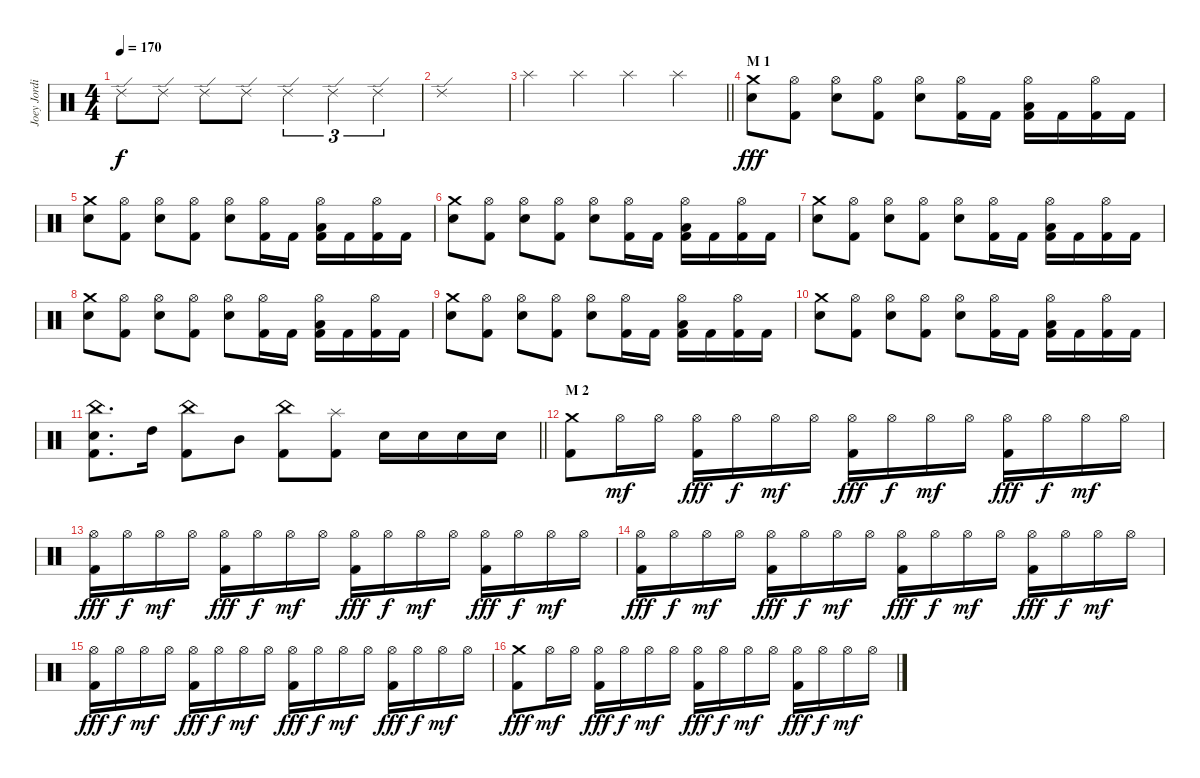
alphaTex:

\track ("Joey Jordison" "Joey Jordi") {instrument percussion}
\staff {score}
\articulation defaults
\ts (4 4)
\tempo 170
\clef neutral
\ks c "Ride (edge) 2".8{dy f} "Ride (edge) 2".8 "Ride (edge) 2".8 "Ride (edge) 2".8 "Ride (edge) 2".4{tu (3 2)} "Ride (edge) 2".4{tu (3 2)} "Ride (edge) 2".4{tu (3 2)}
|
"Ride (edge) 2".1 |
\barLineRight lightlight "Splash (hit)".4 "Splash (hit)".4 "Splash (hit)".4 "Splash (hit)".4
|
\section ("" "M 1")
("Crash medium (hit)" "Electric Snare (hit)").8{dy fff} ("Hi-Hat (open)" "Kick (hit) 2").8 ("Hi-Hat (open)" "Electric Snare (hit)").8 ("Hi-Hat (open)" "Kick (hit) 2").8 ("Hi-Hat (open)" "Electric Snare (hit)").8 ("Hi-Hat (open)" "Kick (hit) 2").16 "Kick (hit) 2".16 ("Hi-Hat (open)" "Low Floor Tom (hit)" "Kick (hit) 2").16 "Kick (hit) 2".16 ("Hi-Hat (open)" "Kick (hit) 2").16 "Kick (hit) 2".16 |
("Crash medium (hit)" "Electric Snare (hit)").8 ("Hi-Hat (open)" "Kick (hit) 2").8 ("Hi-Hat (open)" "Electric Snare (hit)").8 ("Hi-Hat (open)" "Kick (hit) 2").8 ("Hi-Hat (open)" "Electric Snare (hit)").8 ("Hi-Hat (open)" "Kick (hit) 2").16 "Kick (hit) 2".16 ("Hi-Hat (open)" "Low Floor Tom (hit)" "Kick (hit) 2").16 "Kick (hit) 2".16 ("Hi-Hat (open)" "Kick (hit) 2").16 "Kick (hit) 2".16 |
("Crash medium (hit)" "Electric Snare (hit)").8 ("Hi-Hat (open)" "Kick (hit) 2").8 ("Hi-Hat (open)" "Electric Snare (hit)").8 ("Hi-Hat (open)" "Kick (hit) 2").8 ("Hi-Hat (open)" "Electric Snare (hit)").8 ("Hi-Hat (open)" "Kick (hit) 2").16 "Kick (hit) 2".16 ("Hi-Hat (open)" "Low Floor Tom (hit)" "Kick (hit) 2").16 "Kick (hit) 2".16 ("Hi-Hat (open)" "Kick (hit) 2").16 "Kick (hit) 2".16 |
("Crash medium (hit)" "Electric Snare (hit)").8 ("Hi-Hat (open)" "Kick (hit) 2").8 ("Hi-Hat (open)" "Electric Snare (hit)").8 ("Hi-Hat (open)" "Kick (hit) 2").8 ("Hi-Hat (open)" "Electric Snare (hit)").8 ("Hi-Hat (open)" "Kick (hit) 2").16 "Kick (hit) 2".16 ("Hi-Hat (open)" "Low Floor Tom (hit)" "Kick (hit) 2").16 "Kick (hit) 2".16 ("Hi-Hat (open)" "Kick (hit) 2").16 "Kick (hit) 2".16 |
("Crash medium (hit)" "Electric Snare (hit)").8 ("Hi-Hat (open)" "Kick (hit) 2").8 ("Hi-Hat (open)" "Electric Snare (hit)").8 ("Hi-Hat (open)" "Kick (hit) 2").8 ("Hi-Hat (open)" "Electric Snare (hit)").8 ("Hi-Hat (open)" "Kick (hit) 2").16 "Kick (hit) 2".16 ("Hi-Hat (open)" "Low Floor Tom (hit)" "Kick (hit) 2").16 "Kick (hit) 2".16 ("Hi-Hat (open)" "Kick (hit) 2").16 "Kick (hit) 2".16 |
("Crash medium (hit)" "Electric Snare (hit)").8 ("Hi-Hat (open)" "Kick (hit) 2").8 ("Hi-Hat (open)" "Electric Snare (hit)").8 ("Hi-Hat (open)" "Kick (hit) 2").8 ("Hi-Hat (open)" "Electric Snare (hit)").8 ("Hi-Hat (open)" "Kick (hit) 2").16 "Kick (hit) 2".16 ("Hi-Hat (open)" "Low Floor Tom (hit)" "Kick (hit) 2").16 "Kick (hit) 2".16 ("Hi-Hat (open)" "Kick (hit) 2").16 "Kick (hit) 2".16 |
("Crash medium (hit)" "Electric Snare (hit)").8 ("Hi-Hat (open)" "Kick (hit) 2").8 ("Hi-Hat (open)" "Electric Snare (hit)").8 ("Hi-Hat (open)" "Kick (hit) 2").8 ("Hi-Hat (open)" "Electric Snare (hit)").8 ("Hi-Hat (open)" "Kick (hit) 2").16 "Kick (hit) 2".16 ("Hi-Hat (open)" "Low Floor Tom (hit)" "Kick (hit) 2").16 "Kick (hit) 2".16 ("Hi-Hat (open)" "Kick (hit) 2").16 "Kick (hit) 2".16 |
\barLineRight lightlight
("China (hit)" "Electric Snare (hit)" "Kick (hit) 2").8{d} "High Tom (hit)".16 ("China (hit)" "Kick (hit) 2").8 "Mid Tom (hit)".8 ("China (hit)" "Kick (hit) 2").8 ("Splash (hit)" "Kick (hit) 2").8 "Electric Snare (hit)".16 "Electric Snare (hit)".16 "Electric Snare (hit)".16 "Electric Snare (hit)".16 |
\section ("" "M 2")
("Crash medium (hit)" "Kick (hit) 2").8 "Hi-Hat (open)".16{dy mf} "Hi-Hat (open)".16 ("Hi-Hat (open)" "Kick (hit) 2").16{dy fff} "Hi-Hat (open)".16{dy f} "Hi-Hat (open)".16{dy mf} "Hi-Hat (open)".16 ("Hi-Hat (open)" "Kick (hit) 2").16{dy fff} "Hi-Hat (open)".16{dy f} "Hi-Hat (open)".16{dy mf} "Hi-Hat (open)".16 ("Hi-Hat (open)" "Kick (hit) 2").16{dy fff} "Hi-Hat (open)".16{dy f} "Hi-Hat (open)".16{dy mf} "Hi-Hat (open)".16 |
("Hi-Hat (open)" "Kick (hit) 2").16{dy fff} "Hi-Hat (open)".16{dy f} "Hi-Hat (open)".16{dy mf} "Hi-Hat (open)".16 ("Hi-Hat (open)" "Kick (hit) 2").16{dy fff} "Hi-Hat (open)".16{dy f} "Hi-Hat (open)".16{dy mf} "Hi-Hat (open)".16 ("Hi-Hat (open)" "Kick (hit) 2").16{dy fff} "Hi-Hat (open)".16{dy f} "Hi-Hat (open)".16{dy mf} "Hi-Hat (open)".16 ("Hi-Hat (open)" "Kick (hit) 2").16{dy fff} "Hi-Hat (open)".16{dy f} "Hi-Hat (open)".16{dy mf} "Hi-Hat (open)".16 |
("Hi-Hat (open)" "Kick (hit) 2").16{dy fff} "Hi-Hat (open)".16{dy f} "Hi-Hat (open)".16{dy mf} "Hi-Hat (open)".16 ("Hi-Hat (open)" "Kick (hit) 2").16{dy fff} "Hi-Hat (open)".16{dy f} "Hi-Hat (open)".16{dy mf} "Hi-Hat (open)".16 ("Hi-Hat (open)" "Kick (hit) 2").16{dy fff} "Hi-Hat (open)".16{dy f} "Hi-Hat (open)".16{dy mf} "Hi-Hat (open)".16 ("Hi-Hat (open)" "Kick (hit) 2").16{dy fff} "Hi-Hat (open)".16{dy f} "Hi-Hat (open)".16{dy mf} "Hi-Hat (open)".16 |
("Hi-Hat (open)" "Kick (hit) 2").16{dy fff} "Hi-Hat (open)".16{dy f} "Hi-Hat (open)".16{dy mf} "Hi-Hat (open)".16 ("Hi-Hat (open)" "Kick (hit) 2").16{dy fff} "Hi-Hat (open)".16{dy f} "Hi-Hat (open)".16{dy mf} "Hi-Hat (open)".16 ("Hi-Hat (open)" "Kick (hit) 2").16{dy fff} "Hi-Hat (open)".16{dy f} "Hi-Hat (open)".16{dy mf} "Hi-Hat (open)".16 ("Hi-Hat (open)" "Kick (hit) 2").16{dy fff} "Hi-Hat (open)".16{dy f} "Hi-Hat (open)".16{dy mf} "Hi-Hat (open)".16 |
("Crash medium (hit)" "Kick (hit) 2").8{dy fff} "Hi-Hat (open)".16{dy mf} "Hi-Hat (open)".16 ("Hi-Hat (open)" "Kick (hit) 2").16{dy fff} "Hi-Hat (open)".16{dy f} "Hi-Hat (open)".16{dy mf} "Hi-Hat (open)".16 ("Hi-Hat (open)" "Kick (hit) 2").16{dy fff} "Hi-Hat (open)".16{dy f} "Hi-Hat (open)".16{dy mf} "Hi-Hat (open)".16 ("Hi-Hat (open)" "Kick (hit) 2").16{dy fff} "Hi-Hat (open)".16{dy f} "Hi-Hat (open)".16{dy mf} "Hi-Hat (open)".16
